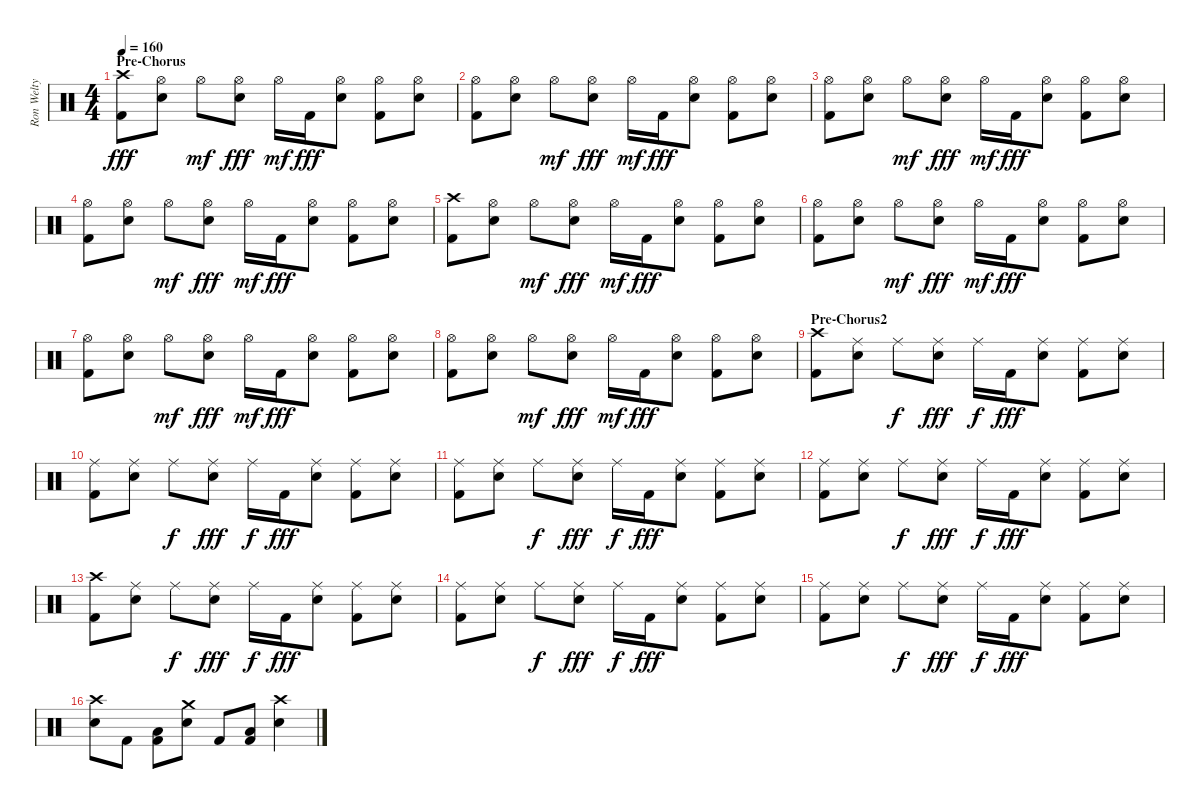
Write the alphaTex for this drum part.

\track ("Ron Welty" "Ron Welty") {instrument percussion}
\staff {score}
\articulation defaults
\ts (4 4)
\section ("" "Pre-Chorus")
\tempo 160
\clef neutral
\ks c
("Crash high (hit)" "Kick (hit) 2").8{dy fff} ("Hi-Hat (open)" "Snare (hit) 2").8 "Hi-Hat (open)".8{dy mf} ("Hi-Hat (open)" "Snare (hit) 2").8{dy fff} "Hi-Hat (open)".16{dy mf} "Kick (hit) 2".16{dy fff} ("Hi-Hat (open)" "Snare (hit) 2").8 ("Hi-Hat (open)" "Kick (hit) 2").8 ("Hi-Hat (open)" "Snare (hit) 2").8 |
("Hi-Hat (open)" "Kick (hit) 2").8 ("Hi-Hat (open)" "Snare (hit) 2").8 "Hi-Hat (open)".8{dy mf} ("Hi-Hat (open)" "Snare (hit) 2").8{dy fff} "Hi-Hat (open)".16{dy mf} "Kick (hit) 2".16{dy fff} ("Hi-Hat (open)" "Snare (hit) 2").8 ("Hi-Hat (open)" "Kick (hit) 2").8 ("Hi-Hat (open)" "Snare (hit) 2").8 |
("Hi-Hat (open)" "Kick (hit) 2").8 ("Hi-Hat (open)" "Snare (hit) 2").8 "Hi-Hat (open)".8{dy mf} ("Hi-Hat (open)" "Snare (hit) 2").8{dy fff} "Hi-Hat (open)".16{dy mf} "Kick (hit) 2".16{dy fff} ("Hi-Hat (open)" "Snare (hit) 2").8 ("Hi-Hat (open)" "Kick (hit) 2").8 ("Hi-Hat (open)" "Snare (hit) 2").8 |
("Hi-Hat (open)" "Kick (hit) 2").8 ("Hi-Hat (open)" "Snare (hit) 2").8 "Hi-Hat (open)".8{dy mf} ("Hi-Hat (open)" "Snare (hit) 2").8{dy fff} "Hi-Hat (open)".16{dy mf} "Kick (hit) 2".16{dy fff} ("Hi-Hat (open)" "Snare (hit) 2").8 ("Hi-Hat (open)" "Kick (hit) 2").8 ("Hi-Hat (open)" "Snare (hit) 2").8 |
("Crash high (hit)" "Kick (hit) 2").8 ("Hi-Hat (open)" "Snare (hit) 2").8 "Hi-Hat (open)".8{dy mf} ("Hi-Hat (open)" "Snare (hit) 2").8{dy fff} "Hi-Hat (open)".16{dy mf} "Kick (hit) 2".16{dy fff} ("Hi-Hat (open)" "Snare (hit) 2").8 ("Hi-Hat (open)" "Kick (hit) 2").8 ("Hi-Hat (open)" "Snare (hit) 2").8 |
("Hi-Hat (open)" "Kick (hit) 2").8 ("Hi-Hat (open)" "Snare (hit) 2").8 "Hi-Hat (open)".8{dy mf} ("Hi-Hat (open)" "Snare (hit) 2").8{dy fff} "Hi-Hat (open)".16{dy mf} "Kick (hit) 2".16{dy fff} ("Hi-Hat (open)" "Snare (hit) 2").8 ("Hi-Hat (open)" "Kick (hit) 2").8 ("Hi-Hat (open)" "Snare (hit) 2").8 |
("Hi-Hat (open)" "Kick (hit) 2").8 ("Hi-Hat (open)" "Snare (hit) 2").8 "Hi-Hat (open)".8{dy mf} ("Hi-Hat (open)" "Snare (hit) 2").8{dy fff} "Hi-Hat (open)".16{dy mf} "Kick (hit) 2".16{dy fff} ("Hi-Hat (open)" "Snare (hit) 2").8 ("Hi-Hat (open)" "Kick (hit) 2").8 ("Hi-Hat (open)" "Snare (hit) 2").8 |
("Hi-Hat (open)" "Kick (hit) 2").8 ("Hi-Hat (open)" "Snare (hit) 2").8 "Hi-Hat (open)".8{dy mf} ("Hi-Hat (open)" "Snare (hit) 2").8{dy fff} "Hi-Hat (open)".16{dy mf} "Kick (hit) 2".16{dy fff} ("Hi-Hat (open)" "Snare (hit) 2").8 ("Hi-Hat (open)" "Kick (hit) 2").8 ("Hi-Hat (open)" "Snare (hit) 2").8 |
\section ("" "Pre-Chorus2")
("Crash high (hit)" "Kick (hit) 2").8 ("Ride (middle)" "Snare (hit) 2").8 "Ride (middle)".8{dy f} ("Ride (middle)" "Snare (hit) 2").8{dy fff} "Ride (middle)".16{dy f} "Kick (hit) 2".16{dy fff} ("Ride (middle)" "Snare (hit) 2").8 ("Ride (middle)" "Kick (hit) 2").8 ("Ride (middle)" "Snare (hit) 2").8 |
("Ride (middle)" "Kick (hit) 2").8 ("Ride (middle)" "Snare (hit) 2").8 "Ride (middle)".8{dy f} ("Ride (middle)" "Snare (hit) 2").8{dy fff} "Ride (middle)".16{dy f} "Kick (hit) 2".16{dy fff} ("Ride (middle)" "Snare (hit) 2").8 ("Ride (middle)" "Kick (hit) 2").8 ("Ride (middle)" "Snare (hit) 2").8 |
("Ride (middle)" "Kick (hit) 2").8 ("Ride (middle)" "Snare (hit) 2").8 "Ride (middle)".8{dy f} ("Ride (middle)" "Snare (hit) 2").8{dy fff} "Ride (middle)".16{dy f} "Kick (hit) 2".16{dy fff} ("Ride (middle)" "Snare (hit) 2").8 ("Ride (middle)" "Kick (hit) 2").8 ("Ride (middle)" "Snare (hit) 2").8 |
("Ride (middle)" "Kick (hit) 2").8 ("Ride (middle)" "Snare (hit) 2").8 "Ride (middle)".8{dy f} ("Ride (middle)" "Snare (hit) 2").8{dy fff} "Ride (middle)".16{dy f} "Kick (hit) 2".16{dy fff} ("Ride (middle)" "Snare (hit) 2").8 ("Ride (middle)" "Kick (hit) 2").8 ("Ride (middle)" "Snare (hit) 2").8 |
("Crash high (hit)" "Kick (hit) 2").8 ("Ride (middle)" "Snare (hit) 2").8 "Ride (middle)".8{dy f} ("Ride (middle)" "Snare (hit) 2").8{dy fff} "Ride (middle)".16{dy f} "Kick (hit) 2".16{dy fff} ("Ride (middle)" "Snare (hit) 2").8 ("Ride (middle)" "Kick (hit) 2").8 ("Ride (middle)" "Snare (hit) 2").8 |
("Ride (middle)" "Kick (hit) 2").8 ("Ride (middle)" "Snare (hit) 2").8 "Ride (middle)".8{dy f} ("Ride (middle)" "Snare (hit) 2").8{dy fff} "Ride (middle)".16{dy f} "Kick (hit) 2".16{dy fff} ("Ride (middle)" "Snare (hit) 2").8 ("Ride (middle)" "Kick (hit) 2").8 ("Ride (middle)" "Snare (hit) 2").8 |
("Ride (middle)" "Kick (hit) 2").8 ("Ride (middle)" "Snare (hit) 2").8 "Ride (middle)".8{dy f} ("Ride (middle)" "Snare (hit) 2").8{dy fff} "Ride (middle)".16{dy f} "Kick (hit) 2".16{dy fff} ("Ride (middle)" "Snare (hit) 2").8 ("Ride (middle)" "Kick (hit) 2").8 ("Ride (middle)" "Snare (hit) 2").8 |
("Crash high (hit)" "Snare (hit) 2").8 "Kick (hit) 2".8 ("Low Tom (hit)" "Kick (hit) 2").8 ("Crash medium (hit)" "Snare (hit) 2").8 "Kick (hit) 2".8 ("Low Floor Tom (hit)" "Kick (hit) 2").8 ("Crash high (hit)" "Snare (hit) 2").4
